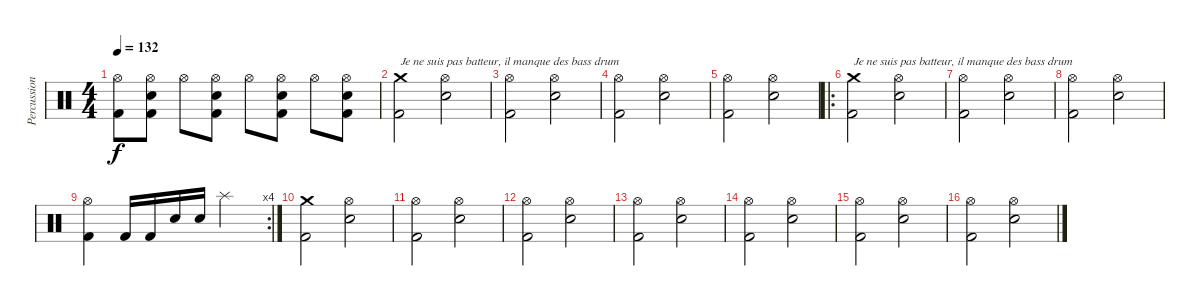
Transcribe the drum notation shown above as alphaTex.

\track ("Percussions" "Percussion") {instrument percussion}
\staff {score}
\articulation defaults
\ts (4 4)
\tempo 132
\clef neutral
\ks c
("Hi-Hat (open)" "Kick (hit) 2").8{dy f} ("Hi-Hat (open)" "Electric Snare (hit)" "Kick (hit) 2").8 "Hi-Hat (open)".8 ("Hi-Hat (open)" "Electric Snare (hit)" "Kick (hit) 2").8 "Hi-Hat (open)".8 ("Hi-Hat (open)" "Electric Snare (hit)" "Kick (hit) 2").8 "Hi-Hat (open)".8 ("Hi-Hat (open)" "Electric Snare (hit)" "Kick (hit) 2").8 |
("Crash medium (hit)" "Kick (hit) 2").2{txt "Je ne suis pas batteur, il manque des bass drum"} ("Hi-Hat (open)" "Electric Snare (hit)").2 |
("Hi-Hat (open)" "Kick (hit) 2").2 ("Hi-Hat (open)" "Electric Snare (hit)").2 |
("Hi-Hat (open)" "Kick (hit) 2").2 ("Hi-Hat (open)" "Electric Snare (hit)").2 |
("Hi-Hat (open)" "Kick (hit) 2").2 ("Hi-Hat (open)" "Electric Snare (hit)").2 |
\ro
("Crash medium (hit)" "Kick (hit) 2").2{txt "Je ne suis pas batteur, il manque des bass drum"} ("Hi-Hat (open)" "Electric Snare (hit)").2 |
("Hi-Hat (open)" "Kick (hit) 2").2 ("Hi-Hat (open)" "Electric Snare (hit)").2 |
("Hi-Hat (open)" "Kick (hit) 2").2 ("Hi-Hat (open)" "Electric Snare (hit)").2 |
\rc 4
("Hi-Hat (open)" "Kick (hit) 2").4 "Kick (hit) 2".16 "Kick (hit) 2".16 "Electric Snare (hit)".16 "Electric Snare (hit)".16 "Splash (hit)".2 |
("Crash medium (hit)" "Kick (hit) 2").2 ("Hi-Hat (open)" "Electric Snare (hit)").2 |
("Hi-Hat (open)" "Kick (hit) 2").2 ("Hi-Hat (open)" "Electric Snare (hit)").2 |
("Hi-Hat (open)" "Kick (hit) 2").2 ("Hi-Hat (open)" "Electric Snare (hit)").2 |
("Hi-Hat (open)" "Kick (hit) 2").2 ("Hi-Hat (open)" "Electric Snare (hit)").2 |
("Hi-Hat (open)" "Kick (hit) 2").2 ("Hi-Hat (open)" "Electric Snare (hit)").2 |
("Hi-Hat (open)" "Kick (hit) 2").2 ("Hi-Hat (open)" "Electric Snare (hit)").2 |
("Hi-Hat (open)" "Kick (hit) 2").2 ("Hi-Hat (open)" "Electric Snare (hit)").2
